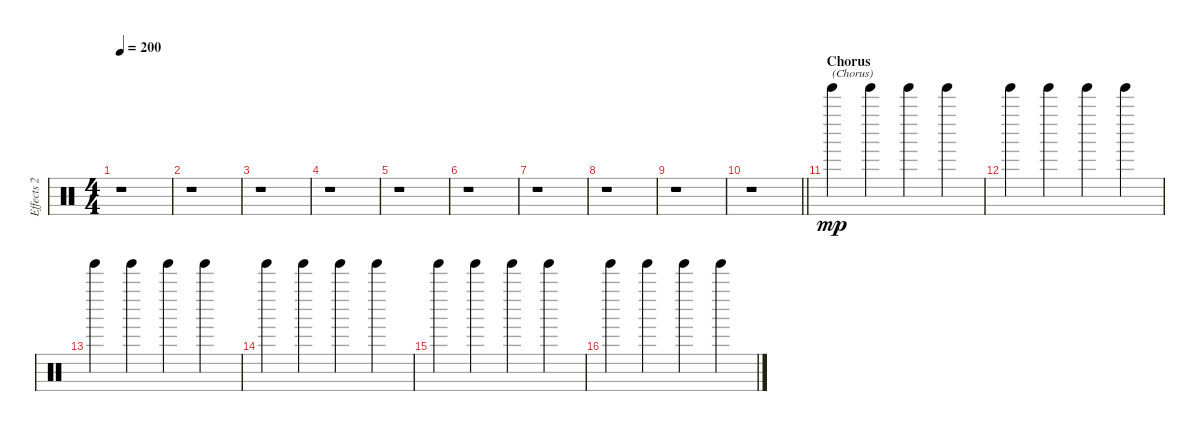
\track ("Effects 2" "Effects 2") {instrument percussion}
\staff {score}
\articulation defaults
\ts (4 4)
\tempo 200
\clef neutral
\ks c
r.1{dy mp} |
r.1 |
r.1 |
r.1 |
r.1 |
r.1 |
r.1 |
r.1 |
r.1 |
\barLineRight lightlight
r.1 |
\section ("" "Chorus")
"Tinkle Bell (hit)".4{txt "(Chorus)"} "Tinkle Bell (hit)".4 "Tinkle Bell (hit)".4 "Tinkle Bell (hit)".4 |
"Tinkle Bell (hit)".4 "Tinkle Bell (hit)".4 "Tinkle Bell (hit)".4 "Tinkle Bell (hit)".4 |
"Tinkle Bell (hit)".4 "Tinkle Bell (hit)".4 "Tinkle Bell (hit)".4 "Tinkle Bell (hit)".4 |
"Tinkle Bell (hit)".4 "Tinkle Bell (hit)".4 "Tinkle Bell (hit)".4 "Tinkle Bell (hit)".4 |
"Tinkle Bell (hit)".4 "Tinkle Bell (hit)".4 "Tinkle Bell (hit)".4 "Tinkle Bell (hit)".4 |
"Tinkle Bell (hit)".4 "Tinkle Bell (hit)".4 "Tinkle Bell (hit)".4 "Tinkle Bell (hit)".4
